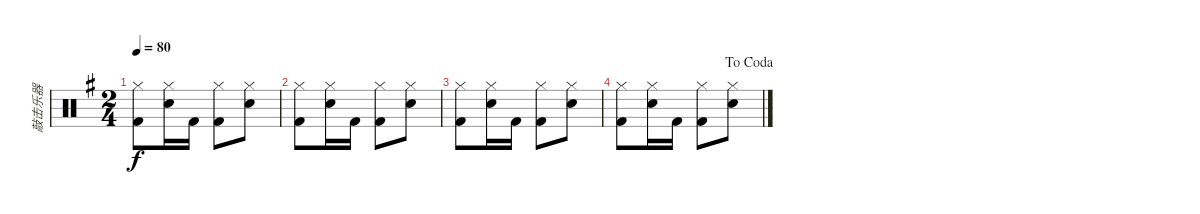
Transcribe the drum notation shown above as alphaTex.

\track ("敲击乐器" "敲击乐器") {instrument percussion}
\staff {score}
\articulation defaults
\ts (2 4)
\tempo 80
\clef neutral
\ks g
("Kick (hit) 2" "Hi-Hat (closed)").8{dy f} ("Electric Snare (hit)" "Hi-Hat (closed)").16 "Kick (hit) 2".16 ("Kick (hit) 2" "Hi-Hat (closed)").8 ("Electric Snare (hit)" "Hi-Hat (closed)").8 |
("Kick (hit) 2" "Hi-Hat (closed)").8 ("Electric Snare (hit)" "Hi-Hat (closed)").16 "Kick (hit) 2".16 ("Kick (hit) 2" "Hi-Hat (closed)").8 ("Electric Snare (hit)" "Hi-Hat (closed)").8 |
("Kick (hit) 2" "Hi-Hat (closed)").8 ("Electric Snare (hit)" "Hi-Hat (closed)").16 "Kick (hit) 2".16 ("Kick (hit) 2" "Hi-Hat (closed)").8 ("Electric Snare (hit)" "Hi-Hat (closed)").8 |
\jump dacoda
("Kick (hit) 2" "Hi-Hat (closed)").8 ("Electric Snare (hit)" "Hi-Hat (closed)").16 "Kick (hit) 2".16 ("Kick (hit) 2" "Hi-Hat (closed)").8 ("Electric Snare (hit)" "Hi-Hat (closed)").8
